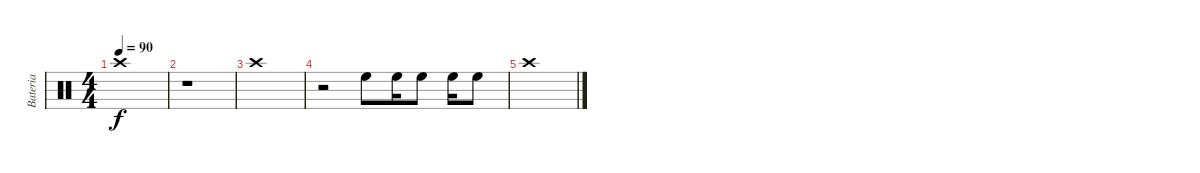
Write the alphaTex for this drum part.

\track ("Bateria" "Bateria") {instrument percussion}
\staff {score}
\articulation defaults
\ts (4 4)
\tempo 90
\clef neutral
\ks c "Crash high (hit)".1{dy f}
|
r.1 |
"Crash high (hit)".1 |
r.2 "High Floor Tom (hit)".8 "High Floor Tom (hit)".16 "High Floor Tom (hit)".8 "High Floor Tom (hit)".16 "High Floor Tom (hit)".8 |
"Crash high (hit)".1
